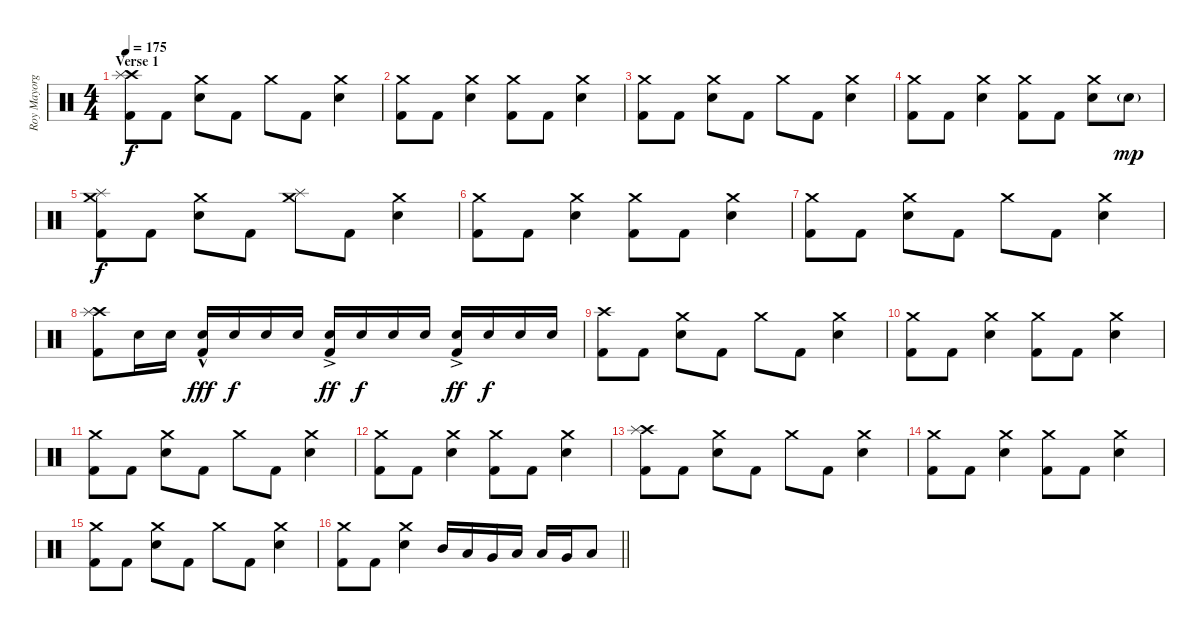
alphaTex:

\track ("Roy Mayorga" "Roy Mayorg") {instrument percussion}
\staff {score}
\articulation defaults
\ts (4 4)
\section ("" "Verse 1")
\tempo 175
\clef neutral
\ks c
("Crash high (hit)" "Splash (hit)" "Kick (hit) 2").8{dy f} "Kick (hit) 2".8 ("Crash medium (hit)" "Electric Snare (hit)").8 "Kick (hit) 2".8 "Crash medium (hit)".8 "Kick (hit) 2".8 ("Crash medium (hit)" "Electric Snare (hit)").4 |
("Crash medium (hit)" "Kick (hit) 2").8 "Kick (hit) 2".8 ("Crash medium (hit)" "Electric Snare (hit)").4 ("Crash medium (hit)" "Kick (hit) 2").8 "Kick (hit) 2".8 ("Crash medium (hit)" "Electric Snare (hit)").4 |
("Crash medium (hit)" "Kick (hit) 2").8 "Kick (hit) 2".8 ("Crash medium (hit)" "Electric Snare (hit)").8 "Kick (hit) 2".8 "Crash medium (hit)".8 "Kick (hit) 2".8 ("Crash medium (hit)" "Electric Snare (hit)").4 |
("Crash medium (hit)" "Kick (hit) 2").8 "Kick (hit) 2".8 ("Crash medium (hit)" "Electric Snare (hit)").4 ("Crash medium (hit)" "Kick (hit) 2").8 "Kick (hit) 2".8 ("Crash medium (hit)" "Electric Snare (hit)").8 "Electric Snare (hit)"{g}.8{dy mp} |
("Crash medium (hit)" "Splash (hit)" "Kick (hit) 2").8{dy f} "Kick (hit) 2".8 ("Crash medium (hit)" "Electric Snare (hit)").8 "Kick (hit) 2".8 ("Crash medium (hit)" "Splash (hit)").8 "Kick (hit) 2".8 ("Crash medium (hit)" "Electric Snare (hit)").4 |
("Crash medium (hit)" "Kick (hit) 2").8 "Kick (hit) 2".8 ("Crash medium (hit)" "Electric Snare (hit)").4 ("Crash medium (hit)" "Kick (hit) 2").8 "Kick (hit) 2".8 ("Crash medium (hit)" "Electric Snare (hit)").4 |
("Crash medium (hit)" "Kick (hit) 2").8 "Kick (hit) 2".8 ("Crash medium (hit)" "Electric Snare (hit)").8 "Kick (hit) 2".8 "Crash medium (hit)".8 "Kick (hit) 2".8 ("Crash medium (hit)" "Electric Snare (hit)").4 |
("Crash high (hit)" "Splash (hit)" "Kick (hit) 2").8 "Electric Snare (hit)".16 "Electric Snare (hit)".16 ("Electric Snare (hit)"{hac} "Kick (hit) 2").16{dy fff} "Electric Snare (hit)".16{dy f} "Electric Snare (hit)".16 "Electric Snare (hit)".16 ("Electric Snare (hit)"{ac} "Kick (hit) 2").16{dy ff} "Electric Snare (hit)".16{dy f} "Electric Snare (hit)".16 "Electric Snare (hit)".16 ("Electric Snare (hit)"{ac} "Kick (hit) 2").16{dy ff} "Electric Snare (hit)".16{dy f} "Electric Snare (hit)".16 "Electric Snare (hit)".16 |
("Crash high (hit)" "Kick (hit) 2").8 "Kick (hit) 2".8 ("Crash medium (hit)" "Electric Snare (hit)").8 "Kick (hit) 2".8 "Crash medium (hit)".8 "Kick (hit) 2".8 ("Crash medium (hit)" "Electric Snare (hit)").4 |
("Crash medium (hit)" "Kick (hit) 2").8 "Kick (hit) 2".8 ("Crash medium (hit)" "Electric Snare (hit)").4 ("Crash medium (hit)" "Kick (hit) 2").8 "Kick (hit) 2".8 ("Crash medium (hit)" "Electric Snare (hit)").4 |
("Crash medium (hit)" "Kick (hit) 2").8 "Kick (hit) 2".8 ("Crash medium (hit)" "Electric Snare (hit)").8 "Kick (hit) 2".8 "Crash medium (hit)".8 "Kick (hit) 2".8 ("Crash medium (hit)" "Electric Snare (hit)").4 |
("Crash medium (hit)" "Kick (hit) 2").8 "Kick (hit) 2".8 ("Crash medium (hit)" "Electric Snare (hit)").4 ("Crash medium (hit)" "Kick (hit) 2").8 "Kick (hit) 2".8 ("Crash medium (hit)" "Electric Snare (hit)").4 |
("Crash high (hit)" "Splash (hit)" "Kick (hit) 2").8 "Kick (hit) 2".8 ("Crash medium (hit)" "Electric Snare (hit)").8 "Kick (hit) 2".8 "Crash medium (hit)".8 "Kick (hit) 2".8 ("Crash medium (hit)" "Electric Snare (hit)").4 |
("Crash medium (hit)" "Kick (hit) 2").8 "Kick (hit) 2".8 ("Crash medium (hit)" "Electric Snare (hit)").4 ("Crash medium (hit)" "Kick (hit) 2").8 "Kick (hit) 2".8 ("Crash medium (hit)" "Electric Snare (hit)").4 |
("Crash medium (hit)" "Kick (hit) 2").8 "Kick (hit) 2".8 ("Crash medium (hit)" "Electric Snare (hit)").8 "Kick (hit) 2".8 "Crash medium (hit)".8 "Kick (hit) 2".8 ("Crash medium (hit)" "Electric Snare (hit)").4 |
\barLineRight lightlight
("Crash medium (hit)" "Kick (hit) 2").8 "Kick (hit) 2".8 ("Crash medium (hit)" "Electric Snare (hit)").4 "Mid Tom (hit)".16 "Low Tom (hit)".16 "Very Low Tom (hit)".16 "Low Floor Tom (hit)".16 "Low Tom (hit)".16 "Very Low Tom (hit)".16 "Low Floor Tom (hit)".8
